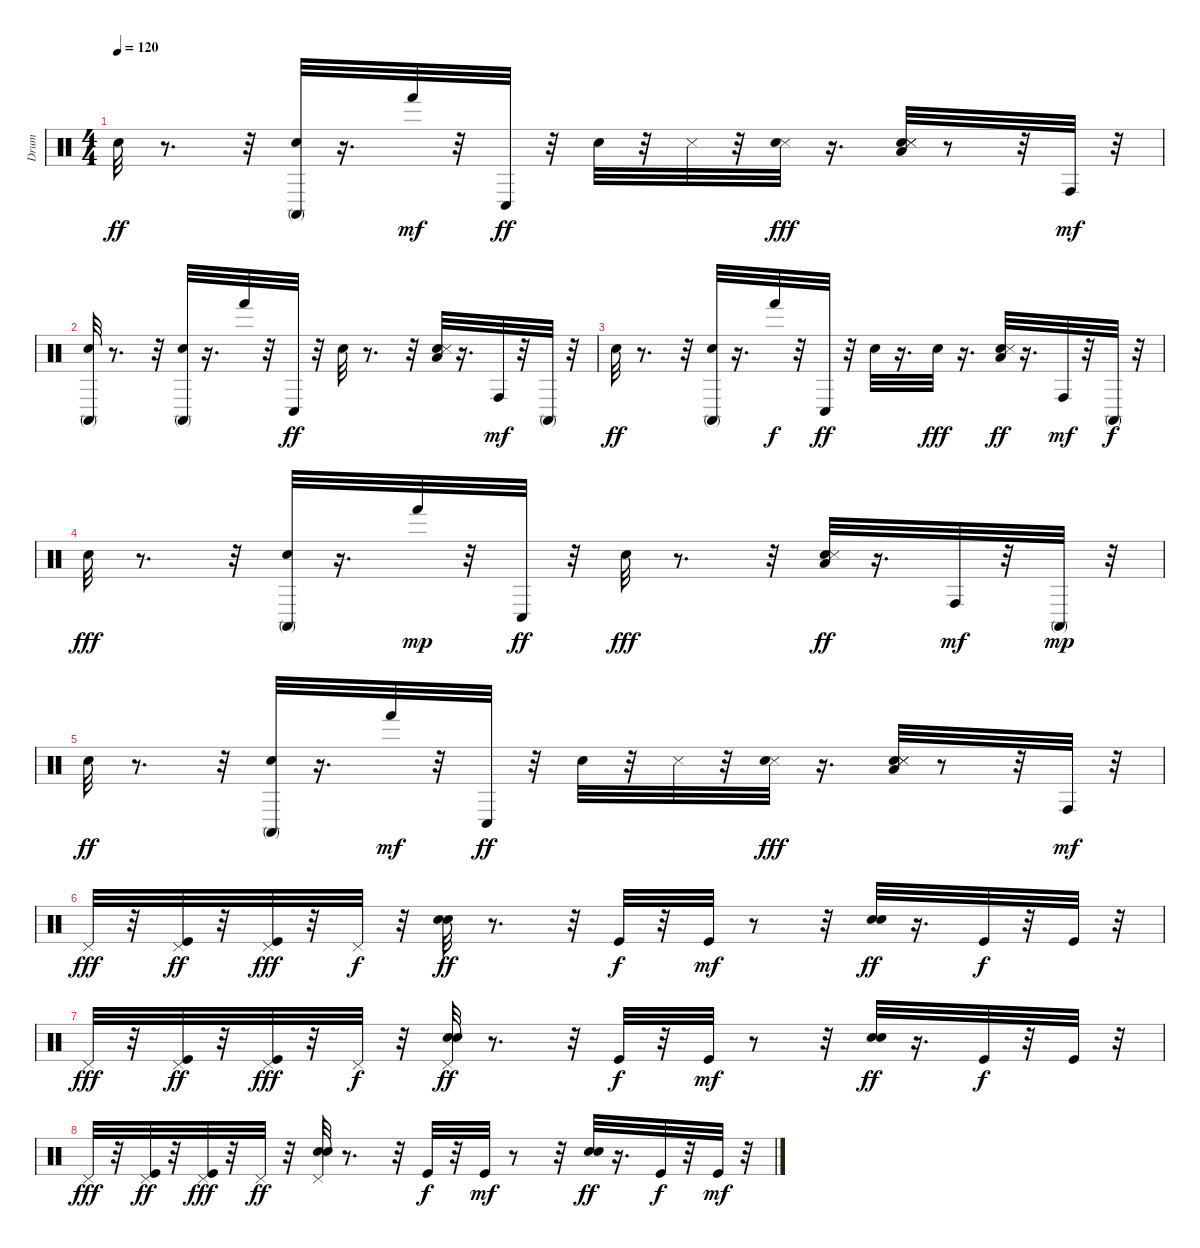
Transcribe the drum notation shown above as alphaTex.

\track ("Drum" "Drum") {instrument percussion}
\staff {score}
\articulation defaults
\ts (4 4)
\tempo 120
\clef neutral
\ks c "Hand Clap (hit)".32{dy ff}
r.8{d} r.32 ("Hand Clap (hit)" "Conga high (mute)").32 r.16{d} "Hand (hit)".32{dy mf} r.32 "Conga low (hit)".32{dy ff} r.32 "Hand Clap (hit)".32 r.32 "Snare (side stick) 3".32 r.32 ("Snare (side stick) 3" "Hand Clap (hit)").32{dy fff} r.16{d} ("Hand Clap (hit)" "Snare (side stick) 3" "Low Floor Tom (hit)" "Snare (side stick) 3").32 r.8 r.32 "Conga high (hit)".32{dy mf} r.32 |
("Hand Clap (hit)" "Conga high (mute)").32 r.8{d} r.32 ("Hand Clap (hit)" "Conga high (mute)").32 r.16{d} "Hand (hit)".32 r.32 "Conga low (hit)".32{dy ff} r.32 "Hand Clap (hit)".32 r.8{d} r.32 ("Hand Clap (hit)" "Snare (side stick) 3" "Low Floor Tom (hit)").32 r.16{d} "Conga high (hit)".32{dy mf} r.32 "Conga high (mute)".32 r.32 |
"Hand Clap (hit)".32{dy ff} r.8{d} r.32 ("Hand Clap (hit)" "Conga high (mute)").32 r.16{d} "Hand (hit)".32{dy f} r.32 "Conga low (hit)".32{dy ff} r.32 "Hand Clap (hit)".32 r.16{d} "Hand Clap (hit)".32{dy fff} r.16{d} ("Hand Clap (hit)" "Snare (side stick) 3" "Low Floor Tom (hit)").32{dy ff} r.16{d} "Conga high (hit)".32{dy mf} r.32 "Conga high (mute)".32{dy f} r.32 |
"Hand Clap (hit)".32{dy fff} r.8{d} r.32 ("Hand Clap (hit)" "Conga high (mute)").32 r.16{d} "Hand (hit)".32{dy mp} r.32 "Conga low (hit)".32{dy ff} r.32 "Hand Clap (hit)".32{dy fff} r.8{d} r.32 ("Hand Clap (hit)" "Snare (side stick) 3" "Low Floor Tom (hit)").32{dy ff} r.16{d} "Conga high (hit)".32{dy mf} r.32 "Conga high (mute)".32{dy mp} r.32 |
"Hand Clap (hit)".32{dy ff} r.8{d} r.32 ("Hand Clap (hit)" "Conga high (mute)").32 r.16{d} "Hand (hit)".32{dy mf} r.32 "Conga low (hit)".32{dy ff} r.32 "Hand Clap (hit)".32 r.32 "Snare (side stick) 3".32 r.32 ("Snare (side stick) 3" "Hand Clap (hit)").32{dy fff} r.16{d} ("Hand Clap (hit)" "Snare (side stick) 3" "Low Floor Tom (hit)" "Snare (side stick) 3").32 r.8 r.32 "Conga high (hit)".32{dy mf} r.32 |
"Pedal Hi-Hat (hit)".32{dy fff} r.32 ("Kick (hit)" "Pedal Hi-Hat (hit)").32{dy ff} r.32 ("Kick (hit)" "Pedal Hi-Hat (hit)").32{dy fff} r.32 "Pedal Hi-Hat (hit)".32{dy f} r.32 ("Snare (hit) 2" "Electric Snare (hit)").32{dy ff} r.8{d} r.32 "Kick (hit)".32{dy f} r.32 "Kick (hit)".32{dy mf} r.8 r.32 ("Snare (hit) 2" "Electric Snare (hit)").32{dy ff} r.16{d} "Kick (hit)".32{dy f} r.32 "Kick (hit)".32 r.32 |
"Pedal Hi-Hat (hit)".32{dy fff} r.32 ("Kick (hit)" "Pedal Hi-Hat (hit)").32{dy ff} r.32 ("Kick (hit)" "Pedal Hi-Hat (hit)").32{dy fff} r.32 "Pedal Hi-Hat (hit)".32{dy f} r.32 ("Snare (hit) 2" "Electric Snare (hit)" "Pedal Hi-Hat (hit)").32{dy ff} r.8{d} r.32 "Kick (hit)".32{dy f} r.32 "Kick (hit)".32{dy mf} r.8 r.32 ("Snare (hit) 2" "Electric Snare (hit)").32{dy ff} r.16{d} "Kick (hit)".32{dy f} r.32 "Kick (hit)".32 r.32 |
"Pedal Hi-Hat (hit)".32{dy fff} r.32 ("Kick (hit)" "Pedal Hi-Hat (hit)").32{dy ff} r.32 ("Kick (hit)" "Pedal Hi-Hat (hit)").32{dy fff} r.32 "Pedal Hi-Hat (hit)".32{dy ff} r.32 ("Snare (hit) 2" "Electric Snare (hit)" "Pedal Hi-Hat (hit)").32 r.8{d} r.32 "Kick (hit)".32{dy f} r.32 "Kick (hit)".32{dy mf} r.8 r.32 ("Snare (hit) 2" "Electric Snare (hit)").32{dy ff} r.16{d} "Kick (hit)".32{dy f} r.32 "Kick (hit)".32{dy mf} r.32
